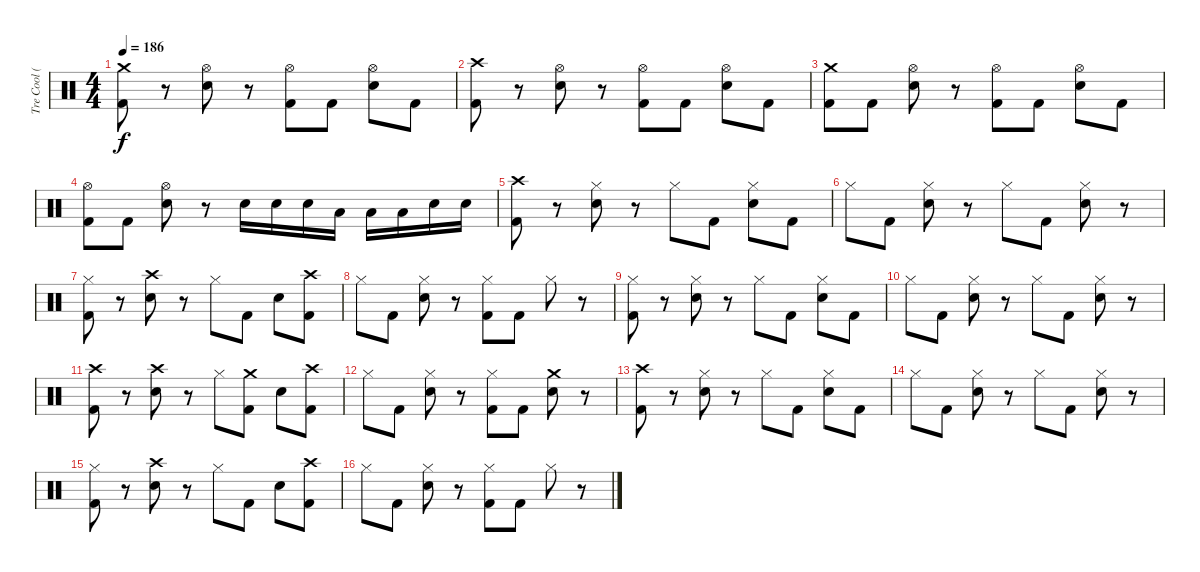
\track ("Tre Cool (Drums)" "Tre Cool (") {instrument percussion}
\staff {score}
\articulation defaults
\ts (4 4)
\tempo 186
\clef neutral
\ks c
("Kick (hit) 2" "Crash medium (hit)").8{dy f} r.8 ("Snare (hit) 2" "Hi-Hat (open)").8 r.8 ("Kick (hit) 2" "Hi-Hat (open)").8 "Kick (hit) 2".8 ("Snare (hit) 2" "Hi-Hat (open)").8 "Kick (hit) 2".8 |
("Kick (hit) 2" "Crash high (hit)").8 r.8 ("Snare (hit) 2" "Hi-Hat (open)").8 r.8 ("Kick (hit) 2" "Hi-Hat (open)").8 "Kick (hit) 2".8 ("Snare (hit) 2" "Hi-Hat (open)").8 "Kick (hit) 2".8 |
("Crash medium (hit)" "Kick (hit) 2").8 "Kick (hit) 2".8 ("Hi-Hat (open)" "Snare (hit) 2").8 r.8 ("Hi-Hat (open)" "Kick (hit) 2").8 "Kick (hit) 2".8 ("Hi-Hat (open)" "Snare (hit) 2").8 "Kick (hit) 2".8 |
("Hi-Hat (open)" "Kick (hit) 2").8 "Kick (hit) 2".8 ("Hi-Hat (open)" "Snare (hit) 2").8 r.8 "Snare (hit) 2".16 "Snare (hit) 2".16 "Snare (hit) 2".16 "Low Tom (hit)".16 "Low Tom (hit)".16 "Low Tom (hit)".16 "Snare (hit) 2".16 "Snare (hit) 2".16 |
("Crash high (hit)" "Kick (hit) 2").8 r.8 ("Hi-Hat (closed)" "Snare (hit) 2").8 r.8 "Hi-Hat (closed)".8 "Kick (hit) 2".8 ("Hi-Hat (closed)" "Snare (hit) 2").8 "Kick (hit) 2".8 |
"Hi-Hat (closed)".8 "Kick (hit) 2".8 ("Hi-Hat (closed)" "Snare (hit) 2").8 r.8 "Hi-Hat (closed)".8 "Kick (hit) 2".8 ("Hi-Hat (closed)" "Snare (hit) 2").8 r.8 |
("Hi-Hat (closed)" "Kick (hit) 2").8 r.8 ("Crash high (hit)" "Snare (hit) 2").8 r.8 "Hi-Hat (closed)".8 "Kick (hit) 2".8 "Snare (hit) 2".8 ("Crash high (hit)" "Kick (hit) 2").8 |
"Hi-Hat (closed)".8 "Kick (hit) 2".8 ("Hi-Hat (closed)" "Snare (hit) 2").8 r.8 ("Hi-Hat (closed)" "Kick (hit) 2").8 "Kick (hit) 2".8 "Hi-Hat (closed)".8 r.8 |
("Kick (hit) 2" "Hi-Hat (closed)").8 r.8 ("Snare (hit) 2" "Hi-Hat (closed)").8 r.8 "Hi-Hat (closed)".8 "Kick (hit) 2".8 ("Snare (hit) 2" "Hi-Hat (closed)").8 "Kick (hit) 2".8 |
"Hi-Hat (closed)".8 "Kick (hit) 2".8 ("Snare (hit) 2" "Hi-Hat (closed)").8 r.8 "Hi-Hat (closed)".8 "Kick (hit) 2".8 ("Snare (hit) 2" "Hi-Hat (closed)").8 r.8 |
("Crash high (hit)" "Kick (hit) 2").8 r.8 ("Crash high (hit)" "Snare (hit) 2").8 r.8 "Hi-Hat (closed)".8 ("Crash medium (hit)" "Kick (hit) 2").8 "Snare (hit) 2".8 ("Crash high (hit)" "Kick (hit) 2").8 |
"Hi-Hat (closed)".8 "Kick (hit) 2".8 ("Snare (hit) 2" "Hi-Hat (closed)").8 r.8 ("Kick (hit) 2" "Hi-Hat (closed)").8 "Kick (hit) 2".8 ("Crash medium (hit)" "Snare (hit) 2").8 r.8 |
("Kick (hit) 2" "Crash high (hit)").8 r.8 ("Snare (hit) 2" "Hi-Hat (closed)").8 r.8 "Hi-Hat (closed)".8 "Kick (hit) 2".8 ("Snare (hit) 2" "Hi-Hat (closed)").8 "Kick (hit) 2".8 |
"Hi-Hat (closed)".8 "Kick (hit) 2".8 ("Snare (hit) 2" "Hi-Hat (closed)").8 r.8 "Hi-Hat (closed)".8 "Kick (hit) 2".8 ("Snare (hit) 2" "Hi-Hat (closed)").8 r.8 |
("Kick (hit) 2" "Hi-Hat (closed)").8 r.8 ("Crash high (hit)" "Snare (hit) 2").8 r.8 "Hi-Hat (closed)".8 "Kick (hit) 2".8 "Snare (hit) 2".8 ("Crash high (hit)" "Kick (hit) 2").8 |
"Hi-Hat (closed)".8 "Kick (hit) 2".8 ("Snare (hit) 2" "Hi-Hat (closed)").8 r.8 ("Kick (hit) 2" "Hi-Hat (closed)").8 "Kick (hit) 2".8 "Hi-Hat (closed)".8 r.8
